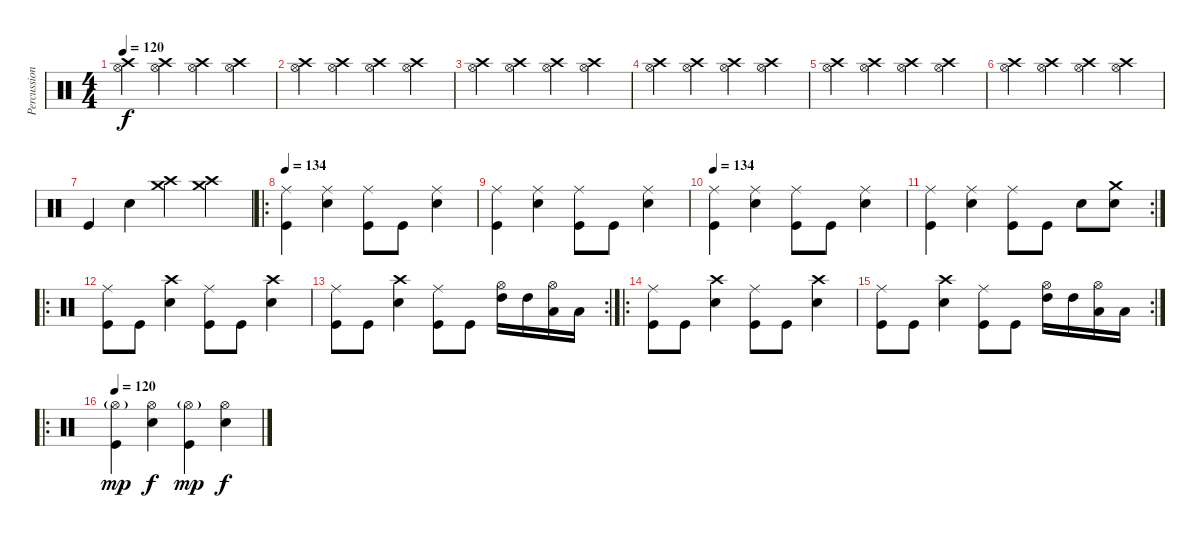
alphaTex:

\track ("Percussion" "Percussion") {instrument percussion}
\staff {score}
\articulation defaults
\ts (4 4)
\tempo 120
\clef neutral
\ks c
("Crash high (hit)" "Hi-Hat (open)").4{dy f} ("Crash high (hit)" "Hi-Hat (open)").4 ("Crash high (hit)" "Hi-Hat (open)").4 ("Crash high (hit)" "Hi-Hat (open)").4 |
("Crash high (hit)" "Hi-Hat (open)").4 ("Crash high (hit)" "Hi-Hat (open)").4 ("Crash high (hit)" "Hi-Hat (open)").4 ("Crash high (hit)" "Hi-Hat (open)").4 |
("Crash high (hit)" "Hi-Hat (open)").4 ("Crash high (hit)" "Hi-Hat (open)").4 ("Crash high (hit)" "Hi-Hat (open)").4 ("Crash high (hit)" "Hi-Hat (open)").4 |
("Crash high (hit)" "Hi-Hat (open)").4 ("Crash high (hit)" "Hi-Hat (open)").4 ("Crash high (hit)" "Hi-Hat (open)").4 ("Crash high (hit)" "Hi-Hat (open)").4 |
("Crash high (hit)" "Hi-Hat (open)").4 ("Crash high (hit)" "Hi-Hat (open)").4 ("Crash high (hit)" "Hi-Hat (open)").4 ("Crash high (hit)" "Hi-Hat (open)").4 |
("Crash high (hit)" "Hi-Hat (open)").4 ("Crash high (hit)" "Hi-Hat (open)").4 ("Crash high (hit)" "Hi-Hat (open)").4 ("Crash high (hit)" "Hi-Hat (open)").4 |
"Kick (hit)".4 "Snare (hit) 2".4 ("Crash medium (hit)" "Crash high (hit)").4 ("Crash medium (hit)" "Crash high (hit)").4 |
\ro
\tempo 134
("Ride (middle)" "Kick (hit)").4 ("Ride (middle)" "Snare (hit) 2").4 ("Ride (middle)" "Kick (hit)").8 "Kick (hit)".8 ("Ride (middle)" "Snare (hit) 2").4 |
("Ride (middle)" "Kick (hit)").4 ("Ride (middle)" "Snare (hit) 2").4 ("Ride (middle)" "Kick (hit)").8 "Kick (hit)".8 ("Ride (middle)" "Snare (hit) 2").4 |
\tempo 134
("Ride (middle)" "Kick (hit)").4 ("Ride (middle)" "Snare (hit) 2").4 ("Ride (middle)" "Kick (hit)").8 "Kick (hit)".8 ("Ride (middle)" "Snare (hit) 2").4 |
\rc 2
("Ride (middle)" "Kick (hit)").4 ("Ride (middle)" "Snare (hit) 2").4 ("Ride (middle)" "Kick (hit)").8 "Kick (hit)".8 "Snare (hit) 2".8 ("Crash medium (hit)" "Snare (hit) 2").8 |
\ro
("Ride (middle)" "Kick (hit)").8 "Kick (hit)".8 ("Crash high (hit)" "Snare (hit) 2").4 ("Ride (middle)" "Kick (hit)").8 "Kick (hit)".8 ("Crash high (hit)" "Snare (hit) 2").4 |
\rc 2
("Ride (middle)" "Kick (hit)").8 "Kick (hit)".8 ("Crash high (hit)" "Snare (hit) 2").4 ("Ride (middle)" "Kick (hit)").8 "Kick (hit)".8 ("Hi-Hat (open)" "High Tom (hit)").16 "High Tom (hit)".16 ("Hi-Hat (open)" "Low Tom (hit)").16 "Low Tom (hit)".16 |
\ro
("Ride (middle)" "Kick (hit)").8 "Kick (hit)".8 ("Crash high (hit)" "Snare (hit) 2").4 ("Ride (middle)" "Kick (hit)").8 "Kick (hit)".8 ("Crash high (hit)" "Snare (hit) 2").4 |
\rc 2
("Ride (middle)" "Kick (hit)").8 "Kick (hit)".8 ("Crash high (hit)" "Snare (hit) 2").4 ("Ride (middle)" "Kick (hit)").8 "Kick (hit)".8 ("Hi-Hat (open)" "High Tom (hit)").16 "High Tom (hit)".16 ("Hi-Hat (open)" "Low Tom (hit)").16 "Low Tom (hit)".16 |
\ro
\tempo 120
("Hi-Hat (open)"{g} "Kick (hit)").4{dy mp} ("Hi-Hat (open)" "Snare (hit) 2").4{dy f} ("Hi-Hat (open)"{g} "Kick (hit)").4{dy mp} ("Hi-Hat (open)" "Snare (hit) 2").4{dy f}
